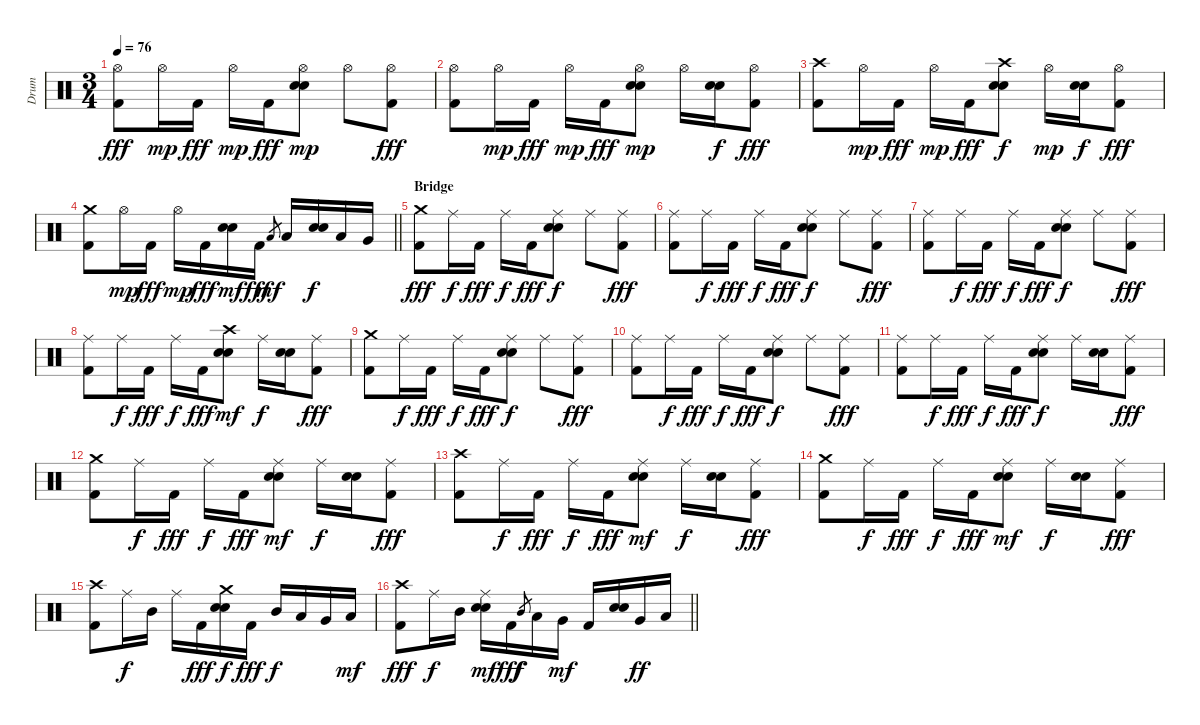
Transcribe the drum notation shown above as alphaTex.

\track ("Drum" "Drum") {instrument percussion}
\staff {score}
\articulation defaults
\ts (3 4)
\tempo 76
\clef neutral
\ks c
("Hi-Hat (open)" "Kick (hit) 2").8{dy fff} "Hi-Hat (open)".16{dy mp} "Kick (hit) 2".16{dy fff} "Hi-Hat (open)".16{dy mp} "Kick (hit) 2".16{dy fff} ("Hi-Hat (open)" "Snare (hit) 2" "Electric Snare (hit)").8{dy mp} "Hi-Hat (open)".8 ("Hi-Hat (open)" "Kick (hit) 2").8{dy fff} |
("Hi-Hat (open)" "Kick (hit) 2").8 "Hi-Hat (open)".16{dy mp} "Kick (hit) 2".16{dy fff} "Hi-Hat (open)".16{dy mp} "Kick (hit) 2".16{dy fff} ("Hi-Hat (open)" "Snare (hit) 2" "Electric Snare (hit)").8{dy mp} "Hi-Hat (open)".16 ("Snare (hit) 2" "Electric Snare (hit)").16{dy f} ("Hi-Hat (open)" "Kick (hit) 2").8{dy fff} |
("Crash high (hit)" "Kick (hit) 2").8 "Hi-Hat (open)".16{dy mp} "Kick (hit) 2".16{dy fff} "Hi-Hat (open)".16{dy mp} "Kick (hit) 2".16{dy fff} ("Crash high (hit)" "Snare (hit) 2" "Electric Snare (hit)").8{dy f} "Hi-Hat (open)".16{dy mp} ("Snare (hit) 2" "Electric Snare (hit)").16{dy f} ("Hi-Hat (open)" "Kick (hit) 2").8{dy fff} |
\barLineRight lightlight
("Crash medium (hit)" "Kick (hit) 2").8 "Hi-Hat (open)".16{dy mp} "Kick (hit) 2".16{dy fff} "Hi-Hat (open)".16{dy mp} "Kick (hit) 2".16{dy fff} ("Snare (hit) 2" "Electric Snare (hit)").16{dy mf} "Kick (hit) 2".16{dy fff} "Low Tom (hit)".8{gr dy mf} "Low Tom (hit)".16 ("Snare (hit) 2" "Electric Snare (hit)").16{dy f} "Low Tom (hit)".16 "Very Low Tom (hit)".16 |
\section ("" "Bridge")
("Crash medium (hit)" "Kick (hit) 2").8{dy fff} "Ride (middle)".16{dy f} "Kick (hit) 2".16{dy fff} "Ride (middle)".16{dy f} "Kick (hit) 2".16{dy fff} ("Ride (middle)" "Snare (hit) 2" "Electric Snare (hit)").8{dy f} "Ride (middle)".8 ("Ride (middle)" "Kick (hit) 2").8{dy fff} |
("Ride (middle)" "Kick (hit) 2").8 "Ride (middle)".16{dy f} "Kick (hit) 2".16{dy fff} "Ride (middle)".16{dy f} "Kick (hit) 2".16{dy fff} ("Ride (middle)" "Snare (hit) 2" "Electric Snare (hit)").8{dy f} "Ride (middle)".8 ("Ride (middle)" "Kick (hit) 2").8{dy fff} |
("Ride (middle)" "Kick (hit) 2").8 "Ride (middle)".16{dy f} "Kick (hit) 2".16{dy fff} "Ride (middle)".16{dy f} "Kick (hit) 2".16{dy fff} ("Ride (middle)" "Snare (hit) 2" "Electric Snare (hit)").8{dy f} "Ride (middle)".8 ("Ride (middle)" "Kick (hit) 2").8{dy fff} |
("Ride (middle)" "Kick (hit) 2").8 "Ride (middle)".16{dy f} "Kick (hit) 2".16{dy fff} "Ride (middle)".16{dy f} "Kick (hit) 2".16{dy fff} ("Crash high (hit)" "Snare (hit) 2" "Electric Snare (hit)").8{dy mf} "Ride (middle)".16{dy f} ("Snare (hit) 2" "Electric Snare (hit)").16 ("Ride (middle)" "Kick (hit) 2").8{dy fff} |
("Crash medium (hit)" "Kick (hit) 2").8 "Ride (middle)".16{dy f} "Kick (hit) 2".16{dy fff} "Ride (middle)".16{dy f} "Kick (hit) 2".16{dy fff} ("Ride (middle)" "Snare (hit) 2" "Electric Snare (hit)").8{dy f} "Ride (middle)".8 ("Ride (middle)" "Kick (hit) 2").8{dy fff} |
("Ride (middle)" "Kick (hit) 2").8 "Ride (middle)".16{dy f} "Kick (hit) 2".16{dy fff} "Ride (middle)".16{dy f} "Kick (hit) 2".16{dy fff} ("Ride (middle)" "Snare (hit) 2" "Electric Snare (hit)").8{dy f} "Ride (middle)".8 ("Ride (middle)" "Kick (hit) 2").8{dy fff} |
("Ride (middle)" "Kick (hit) 2").8 "Ride (middle)".16{dy f} "Kick (hit) 2".16{dy fff} "Ride (middle)".16{dy f} "Kick (hit) 2".16{dy fff} ("Ride (middle)" "Snare (hit) 2" "Electric Snare (hit)").8{dy f} "Ride (middle)".16 ("Snare (hit) 2" "Electric Snare (hit)").16 ("Ride (middle)" "Kick (hit) 2").8{dy fff} |
("Crash medium (hit)" "Kick (hit) 2").8 "Ride (middle)".16{dy f} "Kick (hit) 2".16{dy fff} "Ride (middle)".16{dy f} "Kick (hit) 2".16{dy fff} ("Ride (middle)" "Snare (hit) 2" "Electric Snare (hit)").8{dy mf} "Ride (middle)".16{dy f} ("Snare (hit) 2" "Electric Snare (hit)").16 ("Ride (middle)" "Kick (hit) 2").8{dy fff} |
("Crash high (hit)" "Kick (hit) 2").8 "Ride (middle)".16{dy f} "Kick (hit) 2".16{dy fff} "Ride (middle)".16{dy f} "Kick (hit) 2".16{dy fff} ("Ride (middle)" "Snare (hit) 2" "Electric Snare (hit)").8{dy mf} "Ride (middle)".16{dy f} ("Snare (hit) 2" "Electric Snare (hit)").16 ("Ride (middle)" "Kick (hit) 2").8{dy fff} |
("Crash medium (hit)" "Kick (hit) 2").8 "Ride (middle)".16{dy f} "Kick (hit) 2".16{dy fff} "Ride (middle)".16{dy f} "Kick (hit) 2".16{dy fff} ("Ride (middle)" "Snare (hit) 2" "Electric Snare (hit)").8{dy mf} "Ride (middle)".16{dy f} ("Snare (hit) 2" "Electric Snare (hit)").16 ("Ride (middle)" "Kick (hit) 2").8{dy fff} |
("Crash high (hit)" "Kick (hit) 2").8 "Ride (middle)".16{dy f} "Mid Tom (hit)".16 "Ride (middle)".16 "Kick (hit) 2".16{dy fff} ("Crash medium (hit)" "Snare (hit) 2" "Electric Snare (hit)").16{dy f} "Kick (hit) 2".16{dy fff} "Mid Tom (hit)".16{dy f} "Low Tom (hit)".16 "Very Low Tom (hit)".16 "Low Floor Tom (hit)".16{dy mf} |
\barLineRight lightlight
("Crash high (hit)" "Kick (hit) 2").8{dy fff} "Ride (middle)".16{dy f} "Mid Tom (hit)".16 ("Ride (middle)" "Snare (hit) 2" "Electric Snare (hit)").16{dy mf} "Kick (hit) 2".16{dy fff} "Mid Tom (hit)".8{gr dy f} "Low Tom (hit)".16 "Very Low Tom (hit)".16{dy mf} "Kick (hit) 2".16 ("Snare (hit) 2" "Electric Snare (hit)").16 "Very Low Tom (hit)".16{dy ff} "Low Floor Tom (hit)".16
